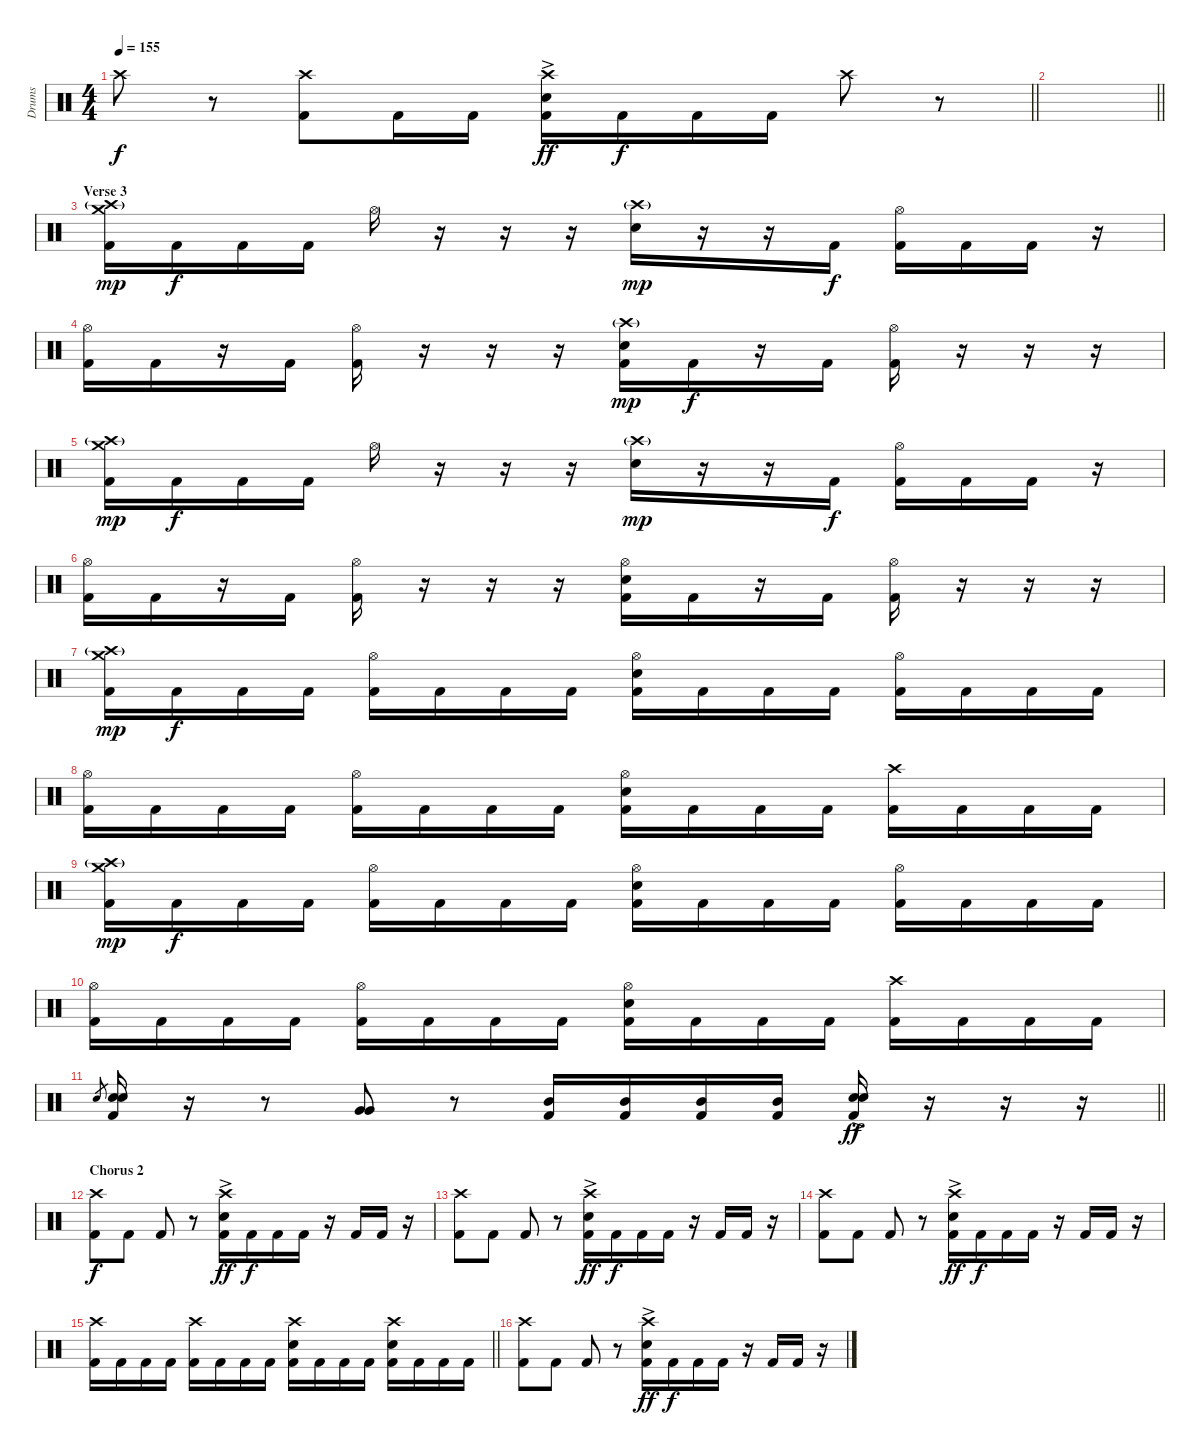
\track ("Drums" "Drums") {instrument percussion}
\staff {score}
\articulation defaults
\ts (4 4)
\tempo 155
\clef neutral
\barLineRight lightlight
\ks c "Crash high (hit)".8{dy f}
r.8 ("Crash high (hit)" "Kick (hit) 2").8 "Kick (hit) 2".16 "Kick (hit) 2".16 ("Crash high (hit)" "Snare (hit) 2"{ac} "Kick (hit) 2").16{dy ff} "Kick (hit) 2".16{dy f} "Kick (hit) 2".16 "Kick (hit) 2".16 "Crash high (hit)".8 r.8 |
\section ("" "")
\barLineRight lightlight
|
\section ("" "Verse 3")
("Crash medium (hit)" "Crash high (hit)"{g} "Kick (hit) 2").16{dy mp} "Kick (hit) 2".16{dy f} "Kick (hit) 2".16 "Kick (hit) 2".16 "Hi-Hat (open)".16 r.16 r.16 r.16 ("Crash high (hit)"{g} "Snare (hit) 2").16{dy mp} r.16 r.16 "Kick (hit) 2".16{dy f} ("Hi-Hat (open)" "Kick (hit) 2").16 "Kick (hit) 2".16 "Kick (hit) 2".16 r.16 |
("Hi-Hat (open)" "Kick (hit) 2").16 "Kick (hit) 2".16 r.16 "Kick (hit) 2".16 ("Hi-Hat (open)" "Kick (hit) 2").16 r.16 r.16 r.16 ("Crash high (hit)"{g} "Snare (hit) 2" "Kick (hit) 2").16{dy mp} "Kick (hit) 2".16{dy f} r.16 "Kick (hit) 2".16 ("Hi-Hat (open)" "Kick (hit) 2").16 r.16 r.16 r.16 |
("Crash medium (hit)" "Crash high (hit)"{g} "Kick (hit) 2").16{dy mp} "Kick (hit) 2".16{dy f} "Kick (hit) 2".16 "Kick (hit) 2".16 "Hi-Hat (open)".16 r.16 r.16 r.16 ("Crash high (hit)"{g} "Snare (hit) 2").16{dy mp} r.16 r.16 "Kick (hit) 2".16{dy f} ("Hi-Hat (open)" "Kick (hit) 2").16 "Kick (hit) 2".16 "Kick (hit) 2".16 r.16 |
("Hi-Hat (open)" "Kick (hit) 2").16 "Kick (hit) 2".16 r.16 "Kick (hit) 2".16 ("Hi-Hat (open)" "Kick (hit) 2").16 r.16 r.16 r.16 ("Hi-Hat (open)" "Snare (hit) 2" "Kick (hit) 2").16 "Kick (hit) 2".16 r.16 "Kick (hit) 2".16 ("Hi-Hat (open)" "Kick (hit) 2").16 r.16 r.16 r.16 |
("Crash medium (hit)" "Crash high (hit)"{g} "Kick (hit) 2").16{dy mp} "Kick (hit) 2".16{dy f} "Kick (hit) 2".16 "Kick (hit) 2".16 ("Hi-Hat (open)" "Kick (hit) 2").16 "Kick (hit) 2".16 "Kick (hit) 2".16 "Kick (hit) 2".16 ("Hi-Hat (open)" "Snare (hit) 2" "Kick (hit) 2").16 "Kick (hit) 2".16 "Kick (hit) 2".16 "Kick (hit) 2".16 ("Hi-Hat (open)" "Kick (hit) 2").16 "Kick (hit) 2".16 "Kick (hit) 2".16 "Kick (hit) 2".16 |
("Hi-Hat (open)" "Kick (hit) 2").16 "Kick (hit) 2".16 "Kick (hit) 2".16 "Kick (hit) 2".16 ("Hi-Hat (open)" "Kick (hit) 2").16 "Kick (hit) 2".16 "Kick (hit) 2".16 "Kick (hit) 2".16 ("Hi-Hat (open)" "Snare (hit) 2" "Kick (hit) 2").16 "Kick (hit) 2".16 "Kick (hit) 2".16 "Kick (hit) 2".16 ("Crash high (hit)" "Kick (hit) 2").16 "Kick (hit) 2".16 "Kick (hit) 2".16 "Kick (hit) 2".16 |
("Crash medium (hit)" "Crash high (hit)"{g} "Kick (hit) 2").16{dy mp} "Kick (hit) 2".16{dy f} "Kick (hit) 2".16 "Kick (hit) 2".16 ("Hi-Hat (open)" "Kick (hit) 2").16 "Kick (hit) 2".16 "Kick (hit) 2".16 "Kick (hit) 2".16 ("Hi-Hat (open)" "Snare (hit) 2" "Kick (hit) 2").16 "Kick (hit) 2".16 "Kick (hit) 2".16 "Kick (hit) 2".16 ("Hi-Hat (open)" "Kick (hit) 2").16 "Kick (hit) 2".16 "Kick (hit) 2".16 "Kick (hit) 2".16 |
("Hi-Hat (open)" "Kick (hit) 2").16 "Kick (hit) 2".16 "Kick (hit) 2".16 "Kick (hit) 2".16 ("Hi-Hat (open)" "Kick (hit) 2").16 "Kick (hit) 2".16 "Kick (hit) 2".16 "Kick (hit) 2".16 ("Hi-Hat (open)" "Snare (hit) 2" "Kick (hit) 2").16 "Kick (hit) 2".16 "Kick (hit) 2".16 "Kick (hit) 2".16 ("Crash high (hit)" "Kick (hit) 2").16 "Kick (hit) 2".16 "Kick (hit) 2".16 "Kick (hit) 2".16 |
\barLineRight lightlight "Snare (hit) 2".8{gr}
("Snare (hit) 2" "Snare (hit) 2" "Kick (hit) 2").16 r.16 r.8 ("Very Low Tom (hit)" "Very Low Tom (hit)").8 r.8 ("Mid Tom (hit)" "Kick (hit) 2").16 ("Mid Tom (hit)" "Kick (hit) 2").16 ("Mid Tom (hit)" "Kick (hit) 2").16 ("Mid Tom (hit)" "Kick (hit) 2").16 ("Snare (hit) 2"{ac} "Snare (hit) 2"{ac} "Kick (hit) 2").16{dy ff} r.16 r.16 r.16 |
\section ("" "Chorus 2")
("Crash high (hit)" "Kick (hit) 2").8{dy f} "Kick (hit) 2".8 "Kick (hit) 2".8 r.8 ("Crash high (hit)" "Snare (hit) 2"{ac} "Kick (hit) 2").16{dy ff} "Kick (hit) 2".16{dy f} "Kick (hit) 2".16 "Kick (hit) 2".16 r.16 "Kick (hit) 2".16 "Kick (hit) 2".16 r.16 |
("Crash high (hit)" "Kick (hit) 2").8 "Kick (hit) 2".8 "Kick (hit) 2".8 r.8 ("Crash high (hit)" "Snare (hit) 2"{ac} "Kick (hit) 2").16{dy ff} "Kick (hit) 2".16{dy f} "Kick (hit) 2".16 "Kick (hit) 2".16 r.16 "Kick (hit) 2".16 "Kick (hit) 2".16 r.16 |
("Crash high (hit)" "Kick (hit) 2").8 "Kick (hit) 2".8 "Kick (hit) 2".8 r.8 ("Crash high (hit)" "Snare (hit) 2"{ac} "Kick (hit) 2").16{dy ff} "Kick (hit) 2".16{dy f} "Kick (hit) 2".16 "Kick (hit) 2".16 r.16 "Kick (hit) 2".16 "Kick (hit) 2".16 r.16 |
\barLineRight lightlight
("Crash high (hit)" "Kick (hit) 2").16 "Kick (hit) 2".16 "Kick (hit) 2".16 "Kick (hit) 2".16 ("Crash high (hit)" "Kick (hit) 2").16 "Kick (hit) 2".16 "Kick (hit) 2".16 "Kick (hit) 2".16 ("Crash high (hit)" "Snare (hit) 2" "Kick (hit) 2").16 "Kick (hit) 2".16 "Kick (hit) 2".16 "Kick (hit) 2".16 ("Crash high (hit)" "Snare (hit) 2" "Kick (hit) 2").16 "Kick (hit) 2".16 "Kick (hit) 2".16 "Kick (hit) 2".16 |
("Crash high (hit)" "Kick (hit) 2").8 "Kick (hit) 2".8 "Kick (hit) 2".8 r.8 ("Crash high (hit)" "Snare (hit) 2"{ac} "Kick (hit) 2").16{dy ff} "Kick (hit) 2".16{dy f} "Kick (hit) 2".16 "Kick (hit) 2".16 r.16 "Kick (hit) 2".16 "Kick (hit) 2".16 r.16
